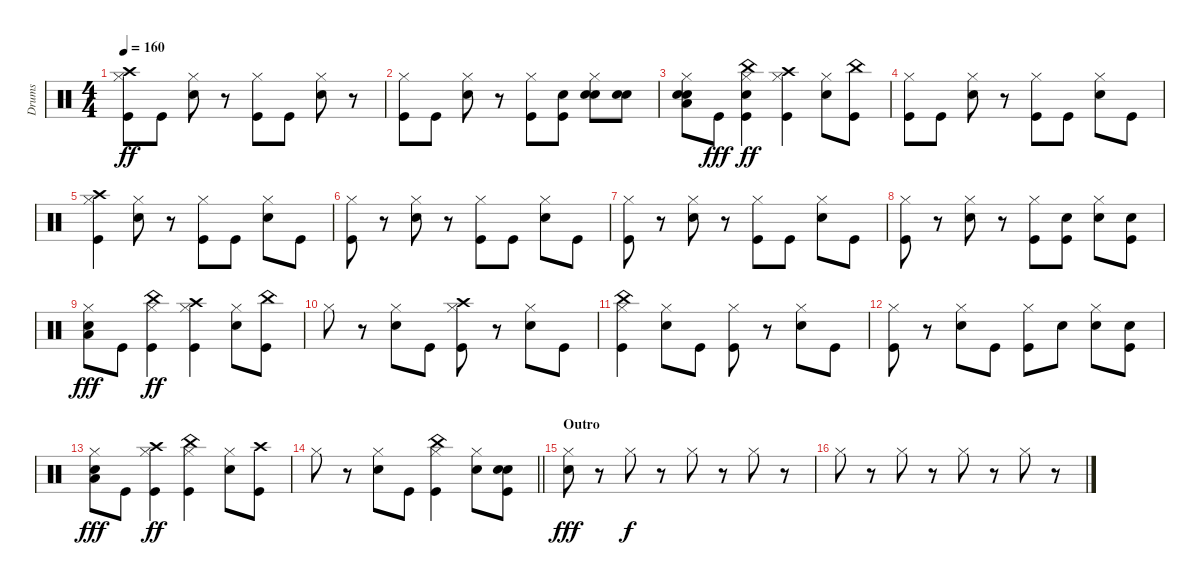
\track ("Drums" "Drums") {instrument percussion}
\staff {score}
\articulation defaults
\ts (4 4)
\tempo 160
\clef neutral
\ks c
("Crash high (hit)" "Hi-Hat (closed)" "Kick (hit)").8{dy ff} "Kick (hit)".8 ("Hi-Hat (closed)" "Snare (hit) 2").8 r.8 ("Hi-Hat (closed)" "Kick (hit)").8 "Kick (hit)".8 ("Hi-Hat (closed)" "Snare (hit) 2").8 r.8 |
("Hi-Hat (closed)" "Kick (hit)").8 "Kick (hit)".8 ("Hi-Hat (closed)" "Snare (hit) 2").8 r.8 ("Hi-Hat (closed)" "Kick (hit)").8 ("Snare (hit) 2" "Kick (hit)").8 ("Snare (hit) 2" "Hi-Hat (closed)" "Snare (hit) 2").8 ("Snare (hit) 2" "Snare (hit) 2").8 |
("Snare (hit) 2" "Snare (hit) 2" "Low Floor Tom (hit)" "Hi-Hat (closed)").8 "Kick (hit)".8{dy fff} ("Kick (hit)" "China (hit)" "Hi-Hat (closed)" "Snare (hit) 2").4{dy ff} ("Kick (hit)" "Crash high (hit)" "Hi-Hat (closed)").4 ("Hi-Hat (closed)" "Snare (hit) 2").8 ("China (hit)" "Kick (hit)").8 |
("Hi-Hat (closed)" "Kick (hit)").8 "Kick (hit)".8 ("Hi-Hat (closed)" "Snare (hit) 2").8 r.8 ("Hi-Hat (closed)" "Kick (hit)").8 "Kick (hit)".8 ("Hi-Hat (closed)" "Snare (hit) 2").8 "Kick (hit)".8 |
("Crash high (hit)" "Hi-Hat (closed)" "Kick (hit)").4 ("Hi-Hat (closed)" "Snare (hit) 2").8 r.8 ("Hi-Hat (closed)" "Kick (hit)").8 "Kick (hit)".8 ("Hi-Hat (closed)" "Snare (hit) 2").8 "Kick (hit)".8 |
("Hi-Hat (closed)" "Kick (hit)").8 r.8 ("Hi-Hat (closed)" "Snare (hit) 2").8 r.8 ("Hi-Hat (closed)" "Kick (hit)").8 "Kick (hit)".8 ("Hi-Hat (closed)" "Snare (hit) 2").8 "Kick (hit)".8 |
("Hi-Hat (closed)" "Kick (hit)").8 r.8 ("Hi-Hat (closed)" "Snare (hit) 2").8 r.8 ("Hi-Hat (closed)" "Kick (hit)").8 "Kick (hit)".8 ("Hi-Hat (closed)" "Snare (hit) 2").8 "Kick (hit)".8 |
("Hi-Hat (closed)" "Kick (hit)").8 r.8 ("Hi-Hat (closed)" "Snare (hit) 2").8 r.8 ("Hi-Hat (closed)" "Kick (hit)").8 ("Snare (hit) 2" "Kick (hit)").8 ("Snare (hit) 2" "Hi-Hat (closed)").8 ("Snare (hit) 2" "Kick (hit)").8 |
("Snare (hit) 2" "Hi-Hat (closed)" "Low Floor Tom (hit)").8{dy fff} "Kick (hit)".8 ("China (hit)" "Hi-Hat (closed)" "Kick (hit)").4{dy ff} ("Kick (hit)" "Crash high (hit)" "Hi-Hat (closed)").4 ("Hi-Hat (closed)" "Snare (hit) 2").8 ("Kick (hit)" "China (hit)").8 |
"Hi-Hat (closed)".8 r.8 ("Hi-Hat (closed)" "Snare (hit) 2").8 "Kick (hit)".8 ("Kick (hit)" "Crash high (hit)" "Hi-Hat (closed)").8 r.8 ("Hi-Hat (closed)" "Snare (hit) 2").8 "Kick (hit)".8 |
("Kick (hit)" "China (hit)" "Hi-Hat (closed)").4 ("Hi-Hat (closed)" "Snare (hit) 2").8 "Kick (hit)".8 ("Hi-Hat (closed)" "Kick (hit)").8 r.8 ("Hi-Hat (closed)" "Snare (hit) 2").8 "Kick (hit)".8 |
("Hi-Hat (closed)" "Kick (hit)").8 r.8 ("Hi-Hat (closed)" "Snare (hit) 2").8 "Kick (hit)".8 ("Kick (hit)" "Hi-Hat (closed)").8 "Snare (hit) 2".8 ("Hi-Hat (closed)" "Snare (hit) 2").8 ("Snare (hit) 2" "Kick (hit)").8 |
("Snare (hit) 2" "Hi-Hat (closed)" "Low Floor Tom (hit)").8{dy fff} "Kick (hit)".8 ("Crash high (hit)" "Hi-Hat (closed)" "Kick (hit)").4{dy ff} ("Kick (hit)" "China (hit)" "Hi-Hat (closed)").4 ("Hi-Hat (closed)" "Snare (hit) 2").8 ("Kick (hit)" "Crash high (hit)").8 |
\barLineRight lightlight "Hi-Hat (closed)".8
r.8 ("Hi-Hat (closed)" "Snare (hit) 2").8 "Kick (hit)".8 ("Kick (hit)" "China (hit)" "Hi-Hat (closed)").4 ("Hi-Hat (closed)" "Snare (hit) 2").8 ("Snare (hit) 2" "Snare (hit) 2" "Kick (hit)").8 |
\section ("" "Outro")
("Snare (hit) 2" "Hi-Hat (closed)").8{dy fff} r.8 "Hi-Hat (closed)".8{dy f} r.8 "Hi-Hat (closed)".8 r.8 "Hi-Hat (closed)".8 r.8 |
"Hi-Hat (closed)".8 r.8 "Hi-Hat (closed)".8 r.8 "Hi-Hat (closed)".8 r.8 "Hi-Hat (closed)".8 r.8
